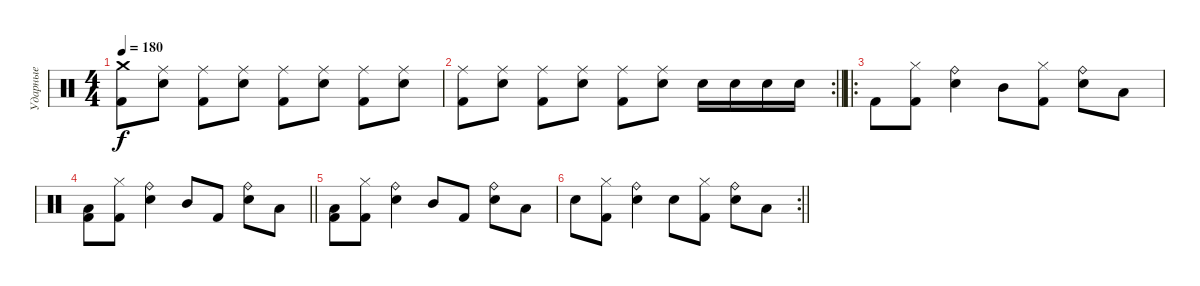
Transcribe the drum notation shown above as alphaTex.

\track ("Ударные" "Ударные") {instrument percussion}
\staff {score}
\articulation defaults
\ts (4 4)
\tempo 180
\clef neutral
\ks c
("Crash medium (hit)" "Kick (hit) 2").8{dy f} ("Ride (middle)" "Snare (hit) 2").8 ("Ride (middle)" "Kick (hit) 2").8 ("Ride (middle)" "Snare (hit) 2").8 ("Ride (middle)" "Kick (hit) 2").8 ("Ride (middle)" "Snare (hit) 2").8 ("Ride (middle)" "Kick (hit) 2").8 ("Ride (middle)" "Snare (hit) 2").8 |
\rc 2
\barLineRight lightlight
("Ride (middle)" "Kick (hit) 2").8 ("Ride (middle)" "Snare (hit) 2").8 ("Ride (middle)" "Kick (hit) 2").8 ("Ride (middle)" "Snare (hit) 2").8 ("Ride (middle)" "Kick (hit) 2").8 ("Ride (middle)" "Snare (hit) 2").8 "Snare (hit) 2".16 "Snare (hit) 2".16 "Snare (hit) 2".16 "Snare (hit) 2".16 |
\ro "Kick (hit) 2".8
("Hi-Hat (closed)" "Kick (hit) 2").8 ("Ride (bell)" "Electric Snare (hit)").4 "Mid Tom (hit)".8 ("Hi-Hat (closed)" "Kick (hit) 2").8 ("Ride (bell)" "Snare (hit) 2").8 "Low Tom (hit)".8 |
\barLineRight lightlight
("Kick (hit) 2" "Low Floor Tom (hit)").8 ("Hi-Hat (closed)" "Kick (hit) 2").8 ("Ride (bell)" "Snare (hit) 2").4 "Mid Tom (hit)".8 "Kick (hit) 2".8 ("Ride (bell)" "Snare (hit) 2").8 "Low Tom (hit)".8 |
("Kick (hit) 2" "Low Floor Tom (hit)").8 ("Hi-Hat (closed)" "Kick (hit) 2").8 ("Ride (bell)" "Snare (hit) 2").4 "Mid Tom (hit)".8 "Kick (hit) 2".8 ("Ride (bell)" "Snare (hit) 2").8 "Low Tom (hit)".8 |
\rc 2
\barLineRight lightlight "Snare (hit) 2".8
("Hi-Hat (closed)" "Kick (hit) 2").8 ("Ride (bell)" "Snare (hit) 2").4 "Snare (hit) 2".8 ("Hi-Hat (closed)" "Kick (hit) 2").8 ("Ride (bell)" "Snare (hit) 2").8 "Low Tom (hit)".8
